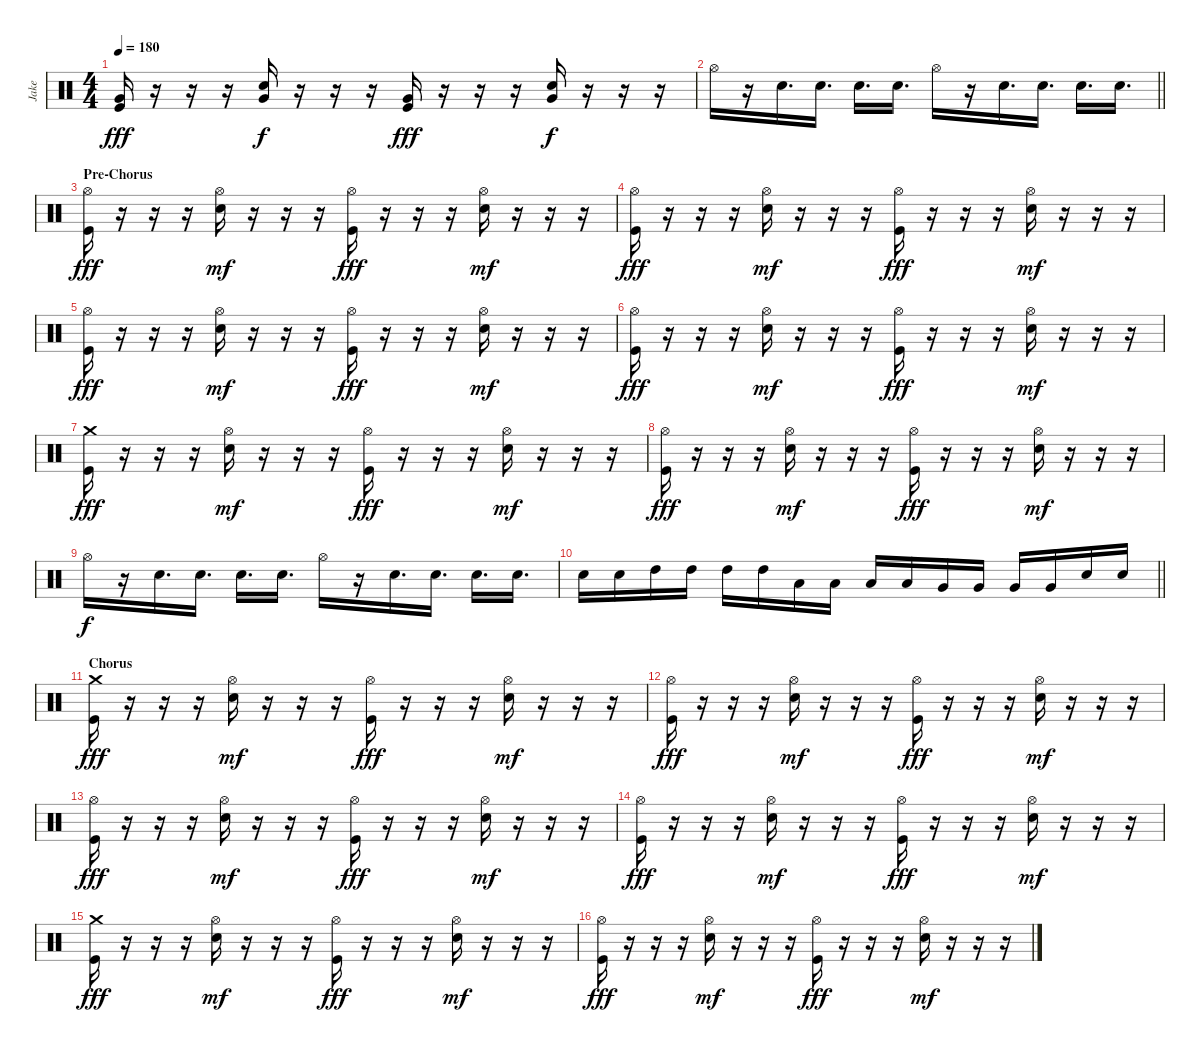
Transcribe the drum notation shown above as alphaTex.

\track ("Jake" "Jake") {instrument percussion}
\staff {score}
\articulation defaults
\ts (4 4)
\tempo 180
\clef neutral
\ks c
("Very Low Tom (hit)" "Kick (hit)").16{dy fff} r.16 r.16 r.16 ("Very Low Tom (hit)" "Electric Snare (hit)").16{dy f} r.16 r.16 r.16 ("Very Low Tom (hit)" "Kick (hit)").16{dy fff} r.16 r.16 r.16 ("Very Low Tom (hit)" "Electric Snare (hit)").16{dy f} r.16 r.16 r.16 |
\barLineRight lightlight "Hi-Hat (open)".16
r.16 "Electric Snare (hit)".16{d} "Electric Snare (hit)".16{d} "Electric Snare (hit)".16{d} "Electric Snare (hit)".16{d} "Hi-Hat (open)".16 r.16 "Electric Snare (hit)".16{d} "Electric Snare (hit)".16{d} "Electric Snare (hit)".16{d} "Electric Snare (hit)".16{d} |
\section ("" "Pre-Chorus")
("Hi-Hat (open)" "Kick (hit)").16{dy fff} r.16 r.16 r.16 ("Hi-Hat (open)" "Electric Snare (hit)").16{dy mf} r.16 r.16 r.16 ("Hi-Hat (open)" "Kick (hit)").16{dy fff} r.16 r.16 r.16 ("Hi-Hat (open)" "Electric Snare (hit)").16{dy mf} r.16 r.16 r.16 |
("Hi-Hat (open)" "Kick (hit)").16{dy fff} r.16 r.16 r.16 ("Hi-Hat (open)" "Electric Snare (hit)").16{dy mf} r.16 r.16 r.16 ("Hi-Hat (open)" "Kick (hit)").16{dy fff} r.16 r.16 r.16 ("Hi-Hat (open)" "Electric Snare (hit)").16{dy mf} r.16 r.16 r.16 |
("Hi-Hat (open)" "Kick (hit)").16{dy fff} r.16 r.16 r.16 ("Hi-Hat (open)" "Electric Snare (hit)").16{dy mf} r.16 r.16 r.16 ("Hi-Hat (open)" "Kick (hit)").16{dy fff} r.16 r.16 r.16 ("Hi-Hat (open)" "Electric Snare (hit)").16{dy mf} r.16 r.16 r.16 |
("Hi-Hat (open)" "Kick (hit)").16{dy fff} r.16 r.16 r.16 ("Hi-Hat (open)" "Electric Snare (hit)").16{dy mf} r.16 r.16 r.16 ("Hi-Hat (open)" "Kick (hit)").16{dy fff} r.16 r.16 r.16 ("Hi-Hat (open)" "Electric Snare (hit)").16{dy mf} r.16 r.16 r.16 |
("Crash medium (hit)" "Kick (hit)").16{dy fff} r.16 r.16 r.16 ("Hi-Hat (open)" "Electric Snare (hit)").16{dy mf} r.16 r.16 r.16 ("Hi-Hat (open)" "Kick (hit)").16{dy fff} r.16 r.16 r.16 ("Hi-Hat (open)" "Electric Snare (hit)").16{dy mf} r.16 r.16 r.16 |
("Hi-Hat (open)" "Kick (hit)").16{dy fff} r.16 r.16 r.16 ("Hi-Hat (open)" "Electric Snare (hit)").16{dy mf} r.16 r.16 r.16 ("Hi-Hat (open)" "Kick (hit)").16{dy fff} r.16 r.16 r.16 ("Hi-Hat (open)" "Electric Snare (hit)").16{dy mf} r.16 r.16 r.16 |
"Hi-Hat (open)".16{dy f} r.16 "Electric Snare (hit)".16{d} "Electric Snare (hit)".16{d} "Electric Snare (hit)".16{d} "Electric Snare (hit)".16{d} "Hi-Hat (open)".16 r.16 "Electric Snare (hit)".16{d} "Electric Snare (hit)".16{d} "Electric Snare (hit)".16{d} "Electric Snare (hit)".16{d} |
\barLineRight lightlight "Electric Snare (hit)".16 "Electric Snare (hit)".16 "High Tom (hit)".16 "High Tom (hit)".16 "High Tom (hit)".16 "High Tom (hit)".16 "Low Tom (hit)".16 "Low Tom (hit)".16 "Low Tom (hit)".16 "Low Tom (hit)".16 "Very Low Tom (hit)".16 "Very Low Tom (hit)".16 "Very Low Tom (hit)".16 "Very Low Tom (hit)".16 "Electric Snare (hit)".16 "Electric Snare (hit)".16
|
\section ("" "Chorus")
("Crash medium (hit)" "Kick (hit)").16{dy fff} r.16 r.16 r.16 ("Hi-Hat (open)" "Electric Snare (hit)").16{dy mf} r.16 r.16 r.16 ("Hi-Hat (open)" "Kick (hit)").16{dy fff} r.16 r.16 r.16 ("Hi-Hat (open)" "Electric Snare (hit)").16{dy mf} r.16 r.16 r.16 |
("Hi-Hat (open)" "Kick (hit)").16{dy fff} r.16 r.16 r.16 ("Hi-Hat (open)" "Electric Snare (hit)").16{dy mf} r.16 r.16 r.16 ("Hi-Hat (open)" "Kick (hit)").16{dy fff} r.16 r.16 r.16 ("Hi-Hat (open)" "Electric Snare (hit)").16{dy mf} r.16 r.16 r.16 |
("Hi-Hat (open)" "Kick (hit)").16{dy fff} r.16 r.16 r.16 ("Hi-Hat (open)" "Electric Snare (hit)").16{dy mf} r.16 r.16 r.16 ("Hi-Hat (open)" "Kick (hit)").16{dy fff} r.16 r.16 r.16 ("Hi-Hat (open)" "Electric Snare (hit)").16{dy mf} r.16 r.16 r.16 |
("Hi-Hat (open)" "Kick (hit)").16{dy fff} r.16 r.16 r.16 ("Hi-Hat (open)" "Electric Snare (hit)").16{dy mf} r.16 r.16 r.16 ("Hi-Hat (open)" "Kick (hit)").16{dy fff} r.16 r.16 r.16 ("Hi-Hat (open)" "Electric Snare (hit)").16{dy mf} r.16 r.16 r.16 |
("Crash medium (hit)" "Kick (hit)").16{dy fff} r.16 r.16 r.16 ("Hi-Hat (open)" "Electric Snare (hit)").16{dy mf} r.16 r.16 r.16 ("Hi-Hat (open)" "Kick (hit)").16{dy fff} r.16 r.16 r.16 ("Hi-Hat (open)" "Electric Snare (hit)").16{dy mf} r.16 r.16 r.16 |
("Hi-Hat (open)" "Kick (hit)").16{dy fff} r.16 r.16 r.16 ("Hi-Hat (open)" "Electric Snare (hit)").16{dy mf} r.16 r.16 r.16 ("Hi-Hat (open)" "Kick (hit)").16{dy fff} r.16 r.16 r.16 ("Hi-Hat (open)" "Electric Snare (hit)").16{dy mf} r.16 r.16 r.16
